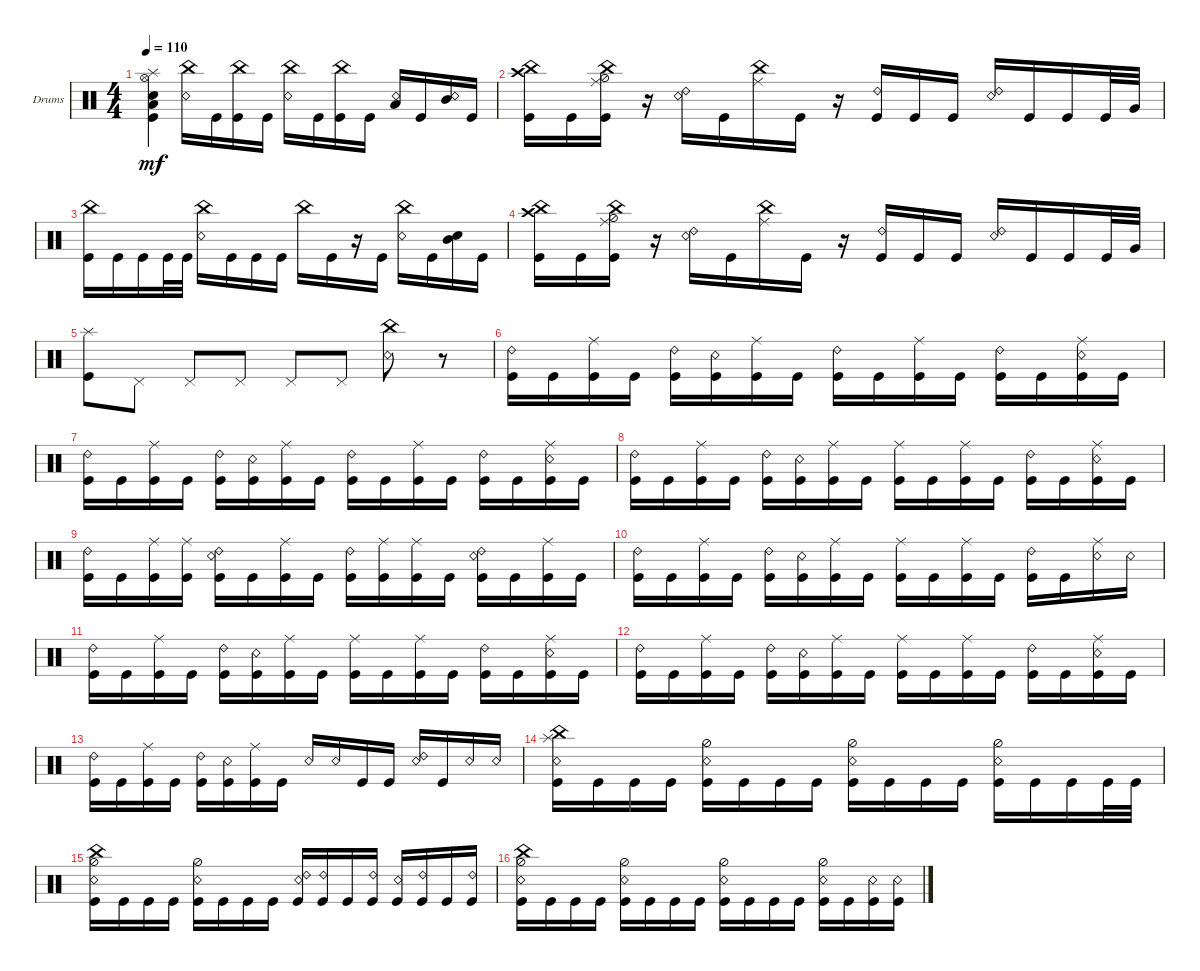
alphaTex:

\defaultSystemsLayout 4
\bracketExtendMode groupsimilarinstruments
\firstSystemTrackNameOrientation horizontal
\otherSystemsTrackNameOrientation horizontal
\track ("Drumkit" "Drums") {instrument percussion}
\staff {score}
\articulation defaults
\ts (4 4)
\scale
0.308003
\tempo 110
\accidentals auto
\clef neutral
\ottava regular
\simile none
\ks c
("Kick (hit)" "Snare (hit) 2" "Low Tom (hit)" "Splash (hit)" "Hi-Hat (open)").4{dy mf} ("Snare (rim shot)" "China (hit)").16 "Kick (hit)".16 ("China (hit)" "Kick (hit)").16 "Kick (hit)".16 ("Snare (rim shot)" "China (hit)").16 "Kick (hit)".16 ("China (hit)" "Kick (hit)").16 "Kick (hit)".16 ("Snare (rim shot)" "Low Tom (hit)").16 "Kick (hit)".16 ("Mid Tom (hit)" "Snare (rim shot)").16 "Kick (hit)".16 |
("Crash high (hit)" "China (hit)" "Kick (hit)").16 "Kick (hit)".16 ("Kick (hit)" "Ride (middle)" "Hi-Hat (half)" "China (hit)").16 r.16 ("Snare (rim shot)" "Ride (bell) 2").16 "Kick (hit)".16 ("Ride (middle)" "China (hit)").16 "Kick (hit)".16 r.16 ("Kick (hit)" "Ride (bell) 2").16 "Kick (hit)".16 "Kick (hit)".16 ("Snare (rim shot)" "Ride (bell) 2").16 "Kick (hit)".16 "Kick (hit)".16 "Kick (hit)".32 "Very Low Tom (hit)".32 |
("China (hit)" "Kick (hit)").16 "Kick (hit)".16 "Kick (hit)".16 "Kick (hit)".32 "Kick (hit)".32 ("Snare (rim shot)" "China (hit)").16 "Kick (hit)".16 "Kick (hit)".16 "Kick (hit)".16 "China (hit)".16 "Kick (hit)".16 r.16 "Kick (hit)".16 ("Snare (rim shot)" "China (hit)").16 "Kick (hit)".16 ("Mid Tom (hit)" "Snare (hit) 2").16 "Kick (hit)".16 |
\scale
0.431918 ("Crash high (hit)" "China (hit)" "Kick (hit)").16 "Kick (hit)".16 ("Kick (hit)" "Ride (middle)" "Hi-Hat (half)" "China (hit)").16 r.16 ("Snare (rim shot)" "Ride (bell) 2").16 "Kick (hit)".16 ("Ride (middle)" "China (hit)").16 "Kick (hit)".16 r.16 ("Kick (hit)" "Ride (bell) 2").16 "Kick (hit)".16 "Kick (hit)".16 ("Snare (rim shot)" "Ride (bell) 2").16 "Kick (hit)".16 "Kick (hit)".16 "Kick (hit)".32 "Very Low Tom (hit)".32 |
\scale
0.181552 ("Splash (hit)" "Kick (hit)").8 "Pedal Hi-Hat (hit)".8 "Pedal Hi-Hat (hit)".8 "Pedal Hi-Hat (hit)".8 "Pedal Hi-Hat (hit)".8 "Pedal Hi-Hat (hit)".8 ("Snare (rim shot)" "China (hit)").8 r.8 |
\scale
0.38653 ("Kick (hit)" "Ride (bell) 2").16 "Kick (hit)".16 ("Kick (hit)" "Ride (middle)").16 "Kick (hit)".16 ("Kick (hit)" "Ride (bell) 2").16 ("Kick (hit)" "Snare (rim shot)").16 ("Kick (hit)" "Ride (middle)").16 "Kick (hit)".16 ("Kick (hit)" "Ride (bell) 2").16 "Kick (hit)".16 ("Kick (hit)" "Ride (middle)").16 "Kick (hit)".16 ("Kick (hit)" "Ride (bell) 2").16 "Kick (hit)".16 ("Kick (hit)" "Ride (middle)" "Snare (rim shot)").16 "Kick (hit)".16 |
("Kick (hit)" "Ride (bell) 2").16 "Kick (hit)".16 ("Kick (hit)" "Ride (middle)").16 "Kick (hit)".16 ("Kick (hit)" "Ride (bell) 2").16 ("Kick (hit)" "Snare (rim shot)").16 ("Kick (hit)" "Ride (middle)").16 "Kick (hit)".16 ("Kick (hit)" "Ride (bell) 2").16 "Kick (hit)".16 ("Kick (hit)" "Ride (middle)").16 "Kick (hit)".16 ("Kick (hit)" "Ride (bell) 2").16 "Kick (hit)".16 ("Kick (hit)" "Ride (middle)" "Snare (rim shot)").16 "Kick (hit)".16 |
("Kick (hit)" "Ride (bell) 2").16 "Kick (hit)".16 ("Kick (hit)" "Ride (middle)").16 "Kick (hit)".16 ("Kick (hit)" "Ride (bell) 2").16 ("Kick (hit)" "Snare (rim shot)").16 ("Kick (hit)" "Ride (middle)").16 "Kick (hit)".16 ("Kick (hit)" "Ride (middle)").16 "Kick (hit)".16 ("Kick (hit)" "Ride (middle)").16 "Kick (hit)".16 ("Kick (hit)" "Ride (bell) 2").16 "Kick (hit)".16 ("Kick (hit)" "Ride (middle)" "Snare (rim shot)").16 "Kick (hit)".16 |
\scale
0.527728 ("Kick (hit)" "Ride (bell) 2").16 "Kick (hit)".16 ("Kick (hit)" "Ride (middle)").16 ("Kick (hit)" "Ride (middle)").16 ("Kick (hit)" "Ride (bell) 2" "Snare (rim shot)").16 "Kick (hit)".16 ("Kick (hit)" "Ride (middle)").16 "Kick (hit)".16 ("Kick (hit)" "Ride (bell) 2").16 ("Kick (hit)" "Ride (middle)").16 ("Kick (hit)" "Ride (middle)").16 "Kick (hit)".16 ("Kick (hit)" "Ride (bell) 2" "Snare (rim shot)").16 "Kick (hit)".16 ("Kick (hit)" "Ride (middle)").16 "Kick (hit)".16 |
\scale
0.472272 ("Kick (hit)" "Ride (bell) 2").16 "Kick (hit)".16 ("Kick (hit)" "Ride (middle)").16 "Kick (hit)".16 ("Kick (hit)" "Ride (bell) 2").16 ("Kick (hit)" "Snare (rim shot)").16 ("Kick (hit)" "Ride (middle)").16 "Kick (hit)".16 ("Kick (hit)" "Ride (middle)").16 "Kick (hit)".16 ("Kick (hit)" "Ride (middle)").16 "Kick (hit)".16 ("Kick (hit)" "Ride (bell) 2").16 "Kick (hit)".16 ("Ride (middle)" "Snare (rim shot)").16 "Snare (rim shot)".16 |
("Kick (hit)" "Ride (bell) 2").16 "Kick (hit)".16 ("Kick (hit)" "Ride (middle)").16 "Kick (hit)".16 ("Kick (hit)" "Ride (bell) 2").16 ("Kick (hit)" "Snare (rim shot)").16 ("Kick (hit)" "Ride (middle)").16 "Kick (hit)".16 ("Kick (hit)" "Ride (middle)").16 "Kick (hit)".16 ("Kick (hit)" "Ride (middle)").16 "Kick (hit)".16 ("Kick (hit)" "Ride (bell) 2").16 "Kick (hit)".16 ("Kick (hit)" "Ride (middle)" "Snare (rim shot)").16 "Kick (hit)".16 |
("Kick (hit)" "Ride (bell) 2").16 "Kick (hit)".16 ("Kick (hit)" "Ride (middle)").16 "Kick (hit)".16 ("Kick (hit)" "Ride (bell) 2").16 ("Kick (hit)" "Snare (rim shot)").16 ("Kick (hit)" "Ride (middle)").16 "Kick (hit)".16 ("Kick (hit)" "Ride (middle)").16 "Kick (hit)".16 ("Kick (hit)" "Ride (middle)").16 "Kick (hit)".16 ("Kick (hit)" "Ride (bell) 2").16 "Kick (hit)".16 ("Kick (hit)" "Ride (middle)" "Snare (rim shot)").16 "Kick (hit)".16 |
("Kick (hit)" "Ride (bell) 2").16 "Kick (hit)".16 ("Kick (hit)" "Ride (middle)").16 "Kick (hit)".16 ("Kick (hit)" "Ride (bell) 2").16 ("Kick (hit)" "Snare (rim shot)").16 ("Kick (hit)" "Ride (middle)").16 "Kick (hit)".16 "Snare (rim shot)".16 "Snare (rim shot)".16 "Kick (hit)".16 "Kick (hit)".16 ("Ride (bell) 2" "Snare (rim shot)").16 "Kick (hit)".16 "Snare (rim shot)".16 "Snare (rim shot)".16 |
("Kick (hit)" "Snare (rim shot)" "China (hit)" "Splash (hit)").16 "Kick (hit)".16 "Kick (hit)".16 "Kick (hit)".16 ("Kick (hit)" "Snare (rim shot)" "Hi-Hat (half)").16 "Kick (hit)".16 "Kick (hit)".16 "Kick (hit)".16 ("Kick (hit)" "Snare (rim shot)" "Hi-Hat (half)").16 "Kick (hit)".16 "Kick (hit)".16 "Kick (hit)".16 ("Kick (hit)" "Snare (rim shot)" "Hi-Hat (half)").16 "Kick (hit)".16 "Kick (hit)".16 "Kick (hit)".32 "Kick (hit)".32 |
\scale
0.527728 ("Kick (hit)" "Snare (rim shot)" "Hi-Hat (half)" "China (hit)").16 "Kick (hit)".16 "Kick (hit)".16 "Kick (hit)".16 ("Kick (hit)" "Snare (rim shot)" "Hi-Hat (half)").16 "Kick (hit)".16 "Kick (hit)".16 "Kick (hit)".16 ("Kick (hit)" "Snare (rim shot)" "Ride (bell) 2").16 ("Kick (hit)" "Ride (bell) 2").16 "Kick (hit)".16 ("Kick (hit)" "Ride (bell) 2").16 ("Kick (hit)" "Snare (rim shot)").16 ("Kick (hit)" "Ride (bell) 2").16 "Kick (hit)".16 ("Kick (hit)" "Ride (bell) 2").16 |
\scale
0.472272 ("Kick (hit)" "Snare (rim shot)" "Hi-Hat (half)" "China (hit)").16 "Kick (hit)".16 "Kick (hit)".16 "Kick (hit)".16 ("Kick (hit)" "Snare (rim shot)" "Hi-Hat (half)").16 "Kick (hit)".16 "Kick (hit)".16 "Kick (hit)".16 ("Kick (hit)" "Snare (rim shot)" "Hi-Hat (half)").16 "Kick (hit)".16 "Kick (hit)".16 "Kick (hit)".16 ("Kick (hit)" "Snare (rim shot)" "Hi-Hat (half)").16 "Kick (hit)".16 ("Kick (hit)" "Snare (rim shot)").16 ("Kick (hit)" "Snare (rim shot)").16
